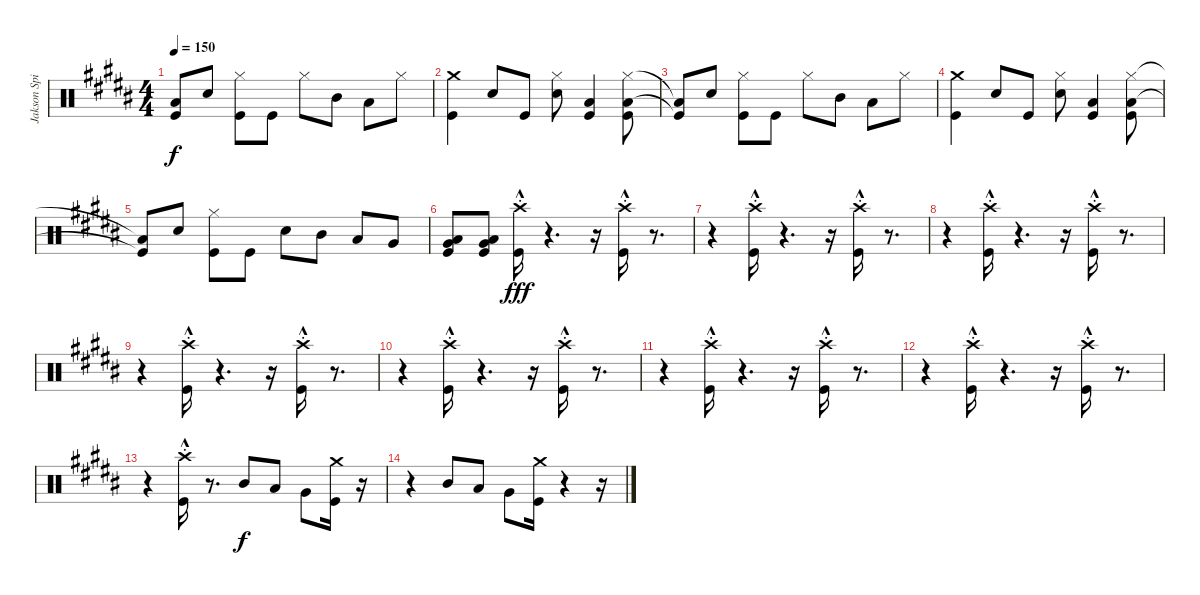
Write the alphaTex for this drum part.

\track ("Jakson Spires Drums" "Jakson Spi") {instrument percussion}
\staff {score}
\articulation defaults
\ts (4 4)
\tempo 150
\clef neutral
\ks b
("Low Floor Tom (hit)"{t} "Kick (hit)"{t}).8{dy f} "Snare (hit) 2".8 ("Hi-Hat (closed)" "Kick (hit)").8 "Kick (hit)".8 "Hi-Hat (closed)".8 "Mid Tom (hit)".8 "Low Tom (hit)".8 "Hi-Hat (closed)".8 |
("Crash medium (hit)" "Kick (hit)").4 "Snare (hit) 2".8 "Kick (hit)".8 ("Hi-Hat (closed)" "Snare (hit) 2").8 ("Low Floor Tom (hit)" "Kick (hit)").4 ("Hi-Hat (closed)" "Low Floor Tom (hit)" "Kick (hit)").8 |
("Low Floor Tom (hit)"{t} "Kick (hit)"{t}).8 "Snare (hit) 2".8 ("Hi-Hat (closed)" "Kick (hit)").8 "Kick (hit)".8 "Hi-Hat (closed)".8 "Mid Tom (hit)".8 "Low Tom (hit)".8 "Hi-Hat (closed)".8 |
("Crash medium (hit)" "Kick (hit)").4 "Snare (hit) 2".8 "Kick (hit)".8 ("Hi-Hat (closed)" "Snare (hit) 2").8 ("Low Floor Tom (hit)" "Kick (hit)").4 ("Hi-Hat (closed)" "Low Floor Tom (hit)" "Kick (hit)").8 |
("Low Floor Tom (hit)"{t} "Kick (hit)"{t}).8 "Snare (hit) 2".8 ("Hi-Hat (closed)" "Kick (hit)").8 "Kick (hit)".8 "Snare (hit) 2".8 "Mid Tom (hit)".8 "Low Tom (hit)".8 "Very Low Tom (hit)".8 |
("Very Low Tom (hit)" "Low Floor Tom (hit)" "Kick (hit)").8 ("Very Low Tom (hit)" "Low Floor Tom (hit)" "Kick (hit)").8 ("Crash high (hit)"{st} "Kick (hit)"{hac st}).16{dy fff} r.4{d} r.16 ("Crash high (hit)"{st} "Kick (hit)"{hac st}).16 r.8{d} |
r.4 ("Crash high (hit)"{st} "Kick (hit)"{hac st}).16 r.4{d} r.16 ("Crash high (hit)"{st} "Kick (hit)"{hac st}).16 r.8{d} |
r.4 ("Crash high (hit)"{st} "Kick (hit)"{hac st}).16 r.4{d} r.16 ("Crash high (hit)"{st} "Kick (hit)"{hac st}).16 r.8{d} |
r.4 ("Crash high (hit)"{st} "Kick (hit)"{hac st}).16 r.4{d} r.16 ("Crash high (hit)"{st} "Kick (hit)"{hac st}).16 r.8{d} |
r.4 ("Crash high (hit)"{st} "Kick (hit)"{hac st}).16 r.4{d} r.16 ("Crash high (hit)"{st} "Kick (hit)"{hac st}).16 r.8{d} |
r.4 ("Crash high (hit)"{st} "Kick (hit)"{hac st}).16 r.4{d} r.16 ("Crash high (hit)"{st} "Kick (hit)"{hac st}).16 r.8{d} |
r.4 ("Crash high (hit)"{st} "Kick (hit)"{hac st}).16 r.4{d} r.16 ("Crash high (hit)"{st} "Kick (hit)"{hac st}).16 r.8{d} |
r.4 ("Crash high (hit)"{st} "Kick (hit)"{hac st}).16 r.8{d} "Mid Tom (hit)".8{dy f} "Low Tom (hit)".8 "Very Low Tom (hit)".8 ("Crash medium (hit)" "Kick (hit)").16 r.16 |
r.4 "Mid Tom (hit)".8 "Low Tom (hit)".8 "Very Low Tom (hit)".8 ("Crash medium (hit)" "Kick (hit)").16 r.4 r.16
